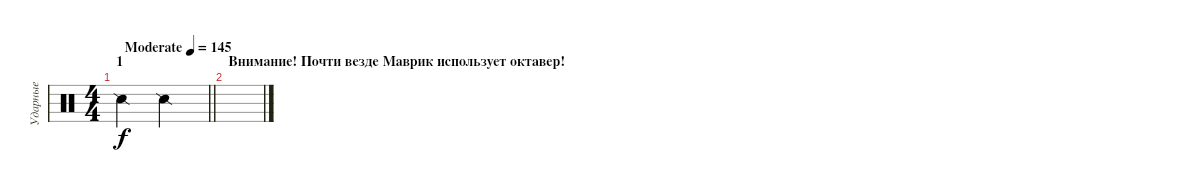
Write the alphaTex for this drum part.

\track ("Ударные" "Ударные") {instrument percussion}
\staff {score}
\articulation defaults
\ts (4 4)
\section ("" "1")
\tempo (145 "Moderate")
\clef neutral
\barLineRight lightlight
\ks c "Snare (side stick) 2".2{dy f} "Snare (side stick) 2".2
|
\section ("" "Внимание! Почти везде Маврик использует октавер!")
